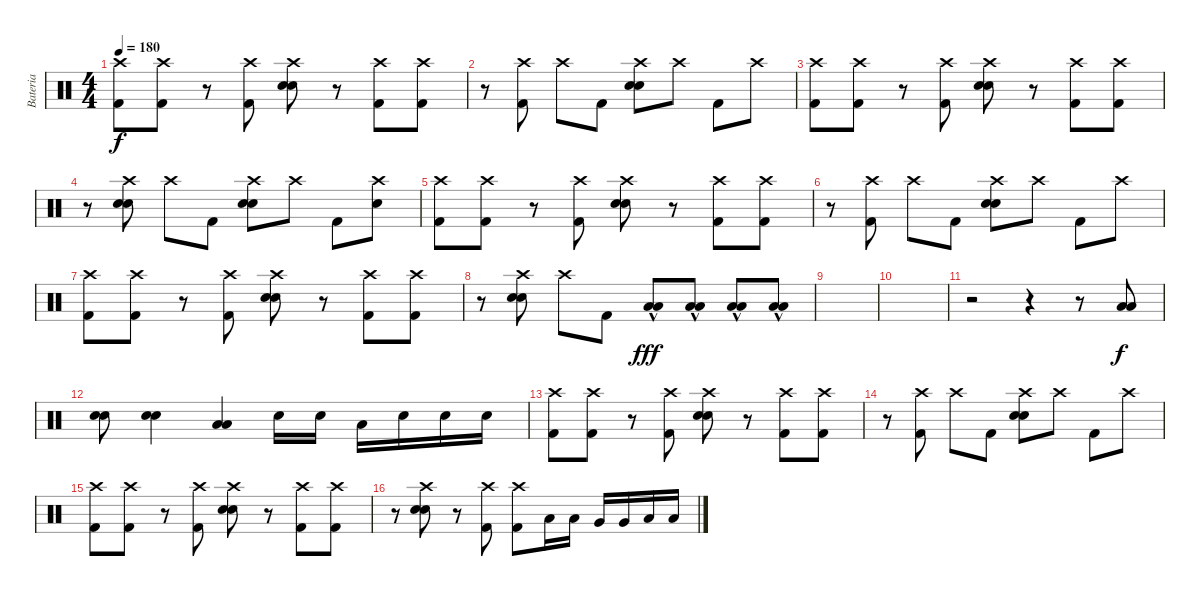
\track ("Bateria" "Bateria") {instrument percussion}
\staff {score}
\articulation defaults
\ts (4 4)
\tempo 180
\clef neutral
\ks c
("Crash high (hit)" "Kick (hit) 2").8{dy f} ("Crash high (hit)" "Kick (hit) 2").8 r.8 ("Crash high (hit)" "Kick (hit) 2").8 ("Crash high (hit)" "Snare (hit) 2" "Electric Snare (hit)").8 r.8 ("Crash high (hit)" "Kick (hit) 2").8 ("Crash high (hit)" "Kick (hit) 2").8 |
r.8 ("Crash high (hit)" "Kick (hit) 2").8 "Crash high (hit)".8 "Kick (hit) 2".8 ("Crash high (hit)" "Snare (hit) 2" "Electric Snare (hit)").8 "Crash high (hit)".8 "Kick (hit) 2".8 "Crash high (hit)".8 |
("Crash high (hit)" "Kick (hit) 2").8 ("Crash high (hit)" "Kick (hit) 2").8 r.8 ("Crash high (hit)" "Kick (hit) 2").8 ("Crash high (hit)" "Snare (hit) 2" "Electric Snare (hit)").8 r.8 ("Crash high (hit)" "Kick (hit) 2").8 ("Crash high (hit)" "Kick (hit) 2").8 |
r.8 ("Crash high (hit)" "Snare (hit) 2" "Electric Snare (hit)").8 "Crash high (hit)".8 "Kick (hit) 2".8 ("Crash high (hit)" "Snare (hit) 2" "Electric Snare (hit)").8 "Crash high (hit)".8 "Kick (hit) 2".8 ("Crash high (hit)" "Electric Snare (hit)").8 |
("Crash high (hit)" "Kick (hit) 2").8 ("Crash high (hit)" "Kick (hit) 2").8 r.8 ("Crash high (hit)" "Kick (hit) 2").8 ("Crash high (hit)" "Snare (hit) 2" "Electric Snare (hit)").8 r.8 ("Crash high (hit)" "Kick (hit) 2").8 ("Crash high (hit)" "Kick (hit) 2").8 |
r.8 ("Crash high (hit)" "Kick (hit) 2").8 "Crash high (hit)".8 "Kick (hit) 2".8 ("Crash high (hit)" "Snare (hit) 2" "Electric Snare (hit)").8 "Crash high (hit)".8 "Kick (hit) 2".8 "Crash high (hit)".8 |
("Crash high (hit)" "Kick (hit) 2").8 ("Crash high (hit)" "Kick (hit) 2").8 r.8 ("Crash high (hit)" "Kick (hit) 2").8 ("Crash high (hit)" "Snare (hit) 2" "Electric Snare (hit)").8 r.8 ("Crash high (hit)" "Kick (hit) 2").8 ("Crash high (hit)" "Kick (hit) 2").8 |
r.8 ("Crash high (hit)" "Snare (hit) 2" "Electric Snare (hit)").8 "Crash high (hit)".8 "Kick (hit) 2".8 ("Low Floor Tom (hit)"{hac} "Low Floor Tom (hit)"{hac}).8{dy fff} ("Low Floor Tom (hit)"{hac} "Low Floor Tom (hit)"{hac}).8 ("Low Floor Tom (hit)"{hac} "Low Floor Tom (hit)"{hac}).8 ("Low Floor Tom (hit)"{hac} "Low Floor Tom (hit)"{hac}).8 |
|
|
r.2 r.4 r.8 ("Low Tom (hit)" "Low Tom (hit)").8{dy f} |
("Electric Snare (hit)" "Electric Snare (hit)").8 ("Electric Snare (hit)" "Electric Snare (hit)").4 ("Low Tom (hit)" "Low Tom (hit)").4 "Electric Snare (hit)".16 "Electric Snare (hit)".16 "Low Tom (hit)".16 "Electric Snare (hit)".16 "Electric Snare (hit)".16 "Electric Snare (hit)".16 |
("Crash high (hit)" "Kick (hit) 2").8 ("Crash high (hit)" "Kick (hit) 2").8 r.8 ("Crash high (hit)" "Kick (hit) 2").8 ("Crash high (hit)" "Snare (hit) 2" "Electric Snare (hit)").8 r.8 ("Crash high (hit)" "Kick (hit) 2").8 ("Crash high (hit)" "Kick (hit) 2").8 |
r.8 ("Crash high (hit)" "Kick (hit) 2").8 "Crash high (hit)".8 "Kick (hit) 2".8 ("Crash high (hit)" "Snare (hit) 2" "Electric Snare (hit)").8 "Crash high (hit)".8 "Kick (hit) 2".8 "Crash high (hit)".8 |
("Crash high (hit)" "Kick (hit) 2").8 ("Crash high (hit)" "Kick (hit) 2").8 r.8 ("Crash high (hit)" "Kick (hit) 2").8 ("Crash high (hit)" "Snare (hit) 2" "Electric Snare (hit)").8 r.8 ("Crash high (hit)" "Kick (hit) 2").8 ("Crash high (hit)" "Kick (hit) 2").8 |
r.8 ("Crash high (hit)" "Electric Snare (hit)" "Snare (hit) 2").8 r.8 ("Crash high (hit)" "Kick (hit) 2").8 ("Crash high (hit)" "Kick (hit) 2").8 "Low Tom (hit)".16 "Low Tom (hit)".16 "Very Low Tom (hit)".16 "Very Low Tom (hit)".16 "Low Floor Tom (hit)".16 "Low Floor Tom (hit)".16
